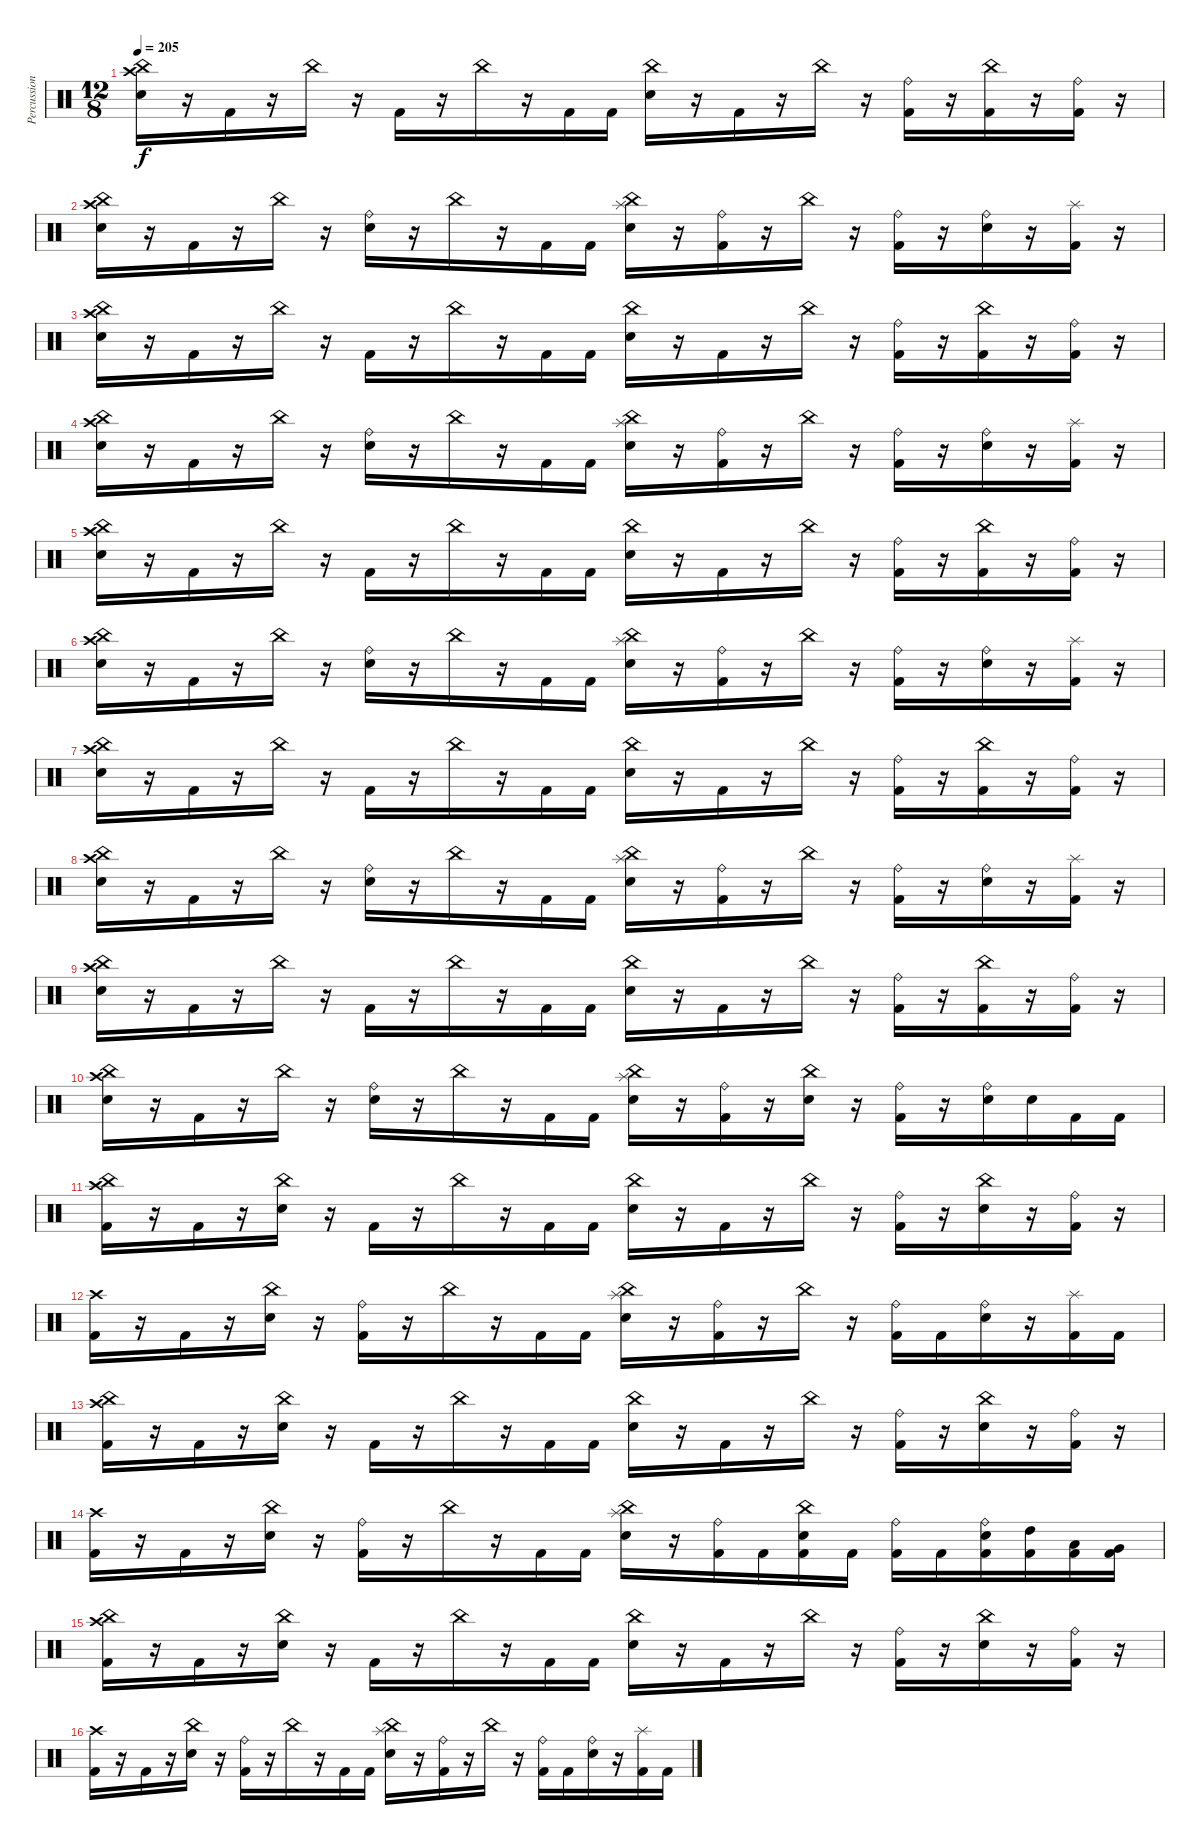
\track ("Percussion" "Percussion") {instrument percussion}
\staff {score}
\articulation defaults
\ts (12 8)
\tempo 205
\clef neutral
\ks c
("Crash high (hit)" "China (hit)" "Electric Snare (hit)").16{dy f} r.16 "Kick (hit) 2".16 r.16 "China (hit)".16 r.16 "Kick (hit) 2".16 r.16 "China (hit)".16 r.16 "Kick (hit) 2".16 "Kick (hit) 2".16 ("China (hit)" "Electric Snare (hit)").16 r.16 "Kick (hit) 2".16 r.16 "China (hit)".16 r.16 ("Ride (bell)" "Kick (hit) 2").16 r.16 ("China (hit)" "Kick (hit) 2").16 r.16 ("Ride (bell)" "Kick (hit) 2").16 r.16 |
("Crash high (hit)" "China (hit)" "Electric Snare (hit)").16 r.16 "Kick (hit) 2".16 r.16 "China (hit)".16 r.16 ("Ride (bell)" "Electric Snare (hit)").16 r.16 "China (hit)".16 r.16 "Kick (hit) 2".16 "Kick (hit) 2".16 ("China (hit)" "Splash (hit)" "Electric Snare (hit)").16 r.16 ("Ride (bell)" "Kick (hit) 2").16 r.16 "China (hit)".16 r.16 ("Ride (bell)" "Kick (hit) 2").16 r.16 ("Ride (bell)" "Electric Snare (hit)").16 r.16 ("Splash (hit)" "Kick (hit) 2").16 r.16 |
("Crash high (hit)" "China (hit)" "Electric Snare (hit)").16 r.16 "Kick (hit) 2".16 r.16 "China (hit)".16 r.16 "Kick (hit) 2".16 r.16 "China (hit)".16 r.16 "Kick (hit) 2".16 "Kick (hit) 2".16 ("China (hit)" "Electric Snare (hit)").16 r.16 "Kick (hit) 2".16 r.16 "China (hit)".16 r.16 ("Ride (bell)" "Kick (hit) 2").16 r.16 ("China (hit)" "Kick (hit) 2").16 r.16 ("Ride (bell)" "Kick (hit) 2").16 r.16 |
("Crash high (hit)" "China (hit)" "Electric Snare (hit)").16 r.16 "Kick (hit) 2".16 r.16 "China (hit)".16 r.16 ("Ride (bell)" "Electric Snare (hit)").16 r.16 "China (hit)".16 r.16 "Kick (hit) 2".16 "Kick (hit) 2".16 ("China (hit)" "Splash (hit)" "Electric Snare (hit)").16 r.16 ("Ride (bell)" "Kick (hit) 2").16 r.16 "China (hit)".16 r.16 ("Ride (bell)" "Kick (hit) 2").16 r.16 ("Ride (bell)" "Electric Snare (hit)").16 r.16 ("Splash (hit)" "Kick (hit) 2").16 r.16 |
("Crash high (hit)" "China (hit)" "Electric Snare (hit)").16 r.16 "Kick (hit) 2".16 r.16 "China (hit)".16 r.16 "Kick (hit) 2".16 r.16 "China (hit)".16 r.16 "Kick (hit) 2".16 "Kick (hit) 2".16 ("China (hit)" "Electric Snare (hit)").16 r.16 "Kick (hit) 2".16 r.16 "China (hit)".16 r.16 ("Ride (bell)" "Kick (hit) 2").16 r.16 ("China (hit)" "Kick (hit) 2").16 r.16 ("Ride (bell)" "Kick (hit) 2").16 r.16 |
("Crash high (hit)" "China (hit)" "Electric Snare (hit)").16 r.16 "Kick (hit) 2".16 r.16 "China (hit)".16 r.16 ("Ride (bell)" "Electric Snare (hit)").16 r.16 "China (hit)".16 r.16 "Kick (hit) 2".16 "Kick (hit) 2".16 ("China (hit)" "Splash (hit)" "Electric Snare (hit)").16 r.16 ("Ride (bell)" "Kick (hit) 2").16 r.16 "China (hit)".16 r.16 ("Ride (bell)" "Kick (hit) 2").16 r.16 ("Ride (bell)" "Electric Snare (hit)").16 r.16 ("Splash (hit)" "Kick (hit) 2").16 r.16 |
("Crash high (hit)" "China (hit)" "Electric Snare (hit)").16 r.16 "Kick (hit) 2".16 r.16 "China (hit)".16 r.16 "Kick (hit) 2".16 r.16 "China (hit)".16 r.16 "Kick (hit) 2".16 "Kick (hit) 2".16 ("China (hit)" "Electric Snare (hit)").16 r.16 "Kick (hit) 2".16 r.16 "China (hit)".16 r.16 ("Ride (bell)" "Kick (hit) 2").16 r.16 ("China (hit)" "Kick (hit) 2").16 r.16 ("Ride (bell)" "Kick (hit) 2").16 r.16 |
("Crash high (hit)" "China (hit)" "Electric Snare (hit)").16 r.16 "Kick (hit) 2".16 r.16 "China (hit)".16 r.16 ("Ride (bell)" "Electric Snare (hit)").16 r.16 "China (hit)".16 r.16 "Kick (hit) 2".16 "Kick (hit) 2".16 ("China (hit)" "Splash (hit)" "Electric Snare (hit)").16 r.16 ("Ride (bell)" "Kick (hit) 2").16 r.16 "China (hit)".16 r.16 ("Ride (bell)" "Kick (hit) 2").16 r.16 ("Ride (bell)" "Electric Snare (hit)").16 r.16 ("Splash (hit)" "Kick (hit) 2").16 r.16 |
("Crash high (hit)" "China (hit)" "Electric Snare (hit)").16 r.16 "Kick (hit) 2".16 r.16 "China (hit)".16 r.16 "Kick (hit) 2".16 r.16 "China (hit)".16 r.16 "Kick (hit) 2".16 "Kick (hit) 2".16 ("China (hit)" "Electric Snare (hit)").16 r.16 "Kick (hit) 2".16 r.16 "China (hit)".16 r.16 ("Ride (bell)" "Kick (hit) 2").16 r.16 ("China (hit)" "Kick (hit) 2").16 r.16 ("Ride (bell)" "Kick (hit) 2").16 r.16 |
("Crash high (hit)" "China (hit)" "Electric Snare (hit)").16 r.16 "Kick (hit) 2".16 r.16 "China (hit)".16 r.16 ("Ride (bell)" "Electric Snare (hit)").16 r.16 "China (hit)".16 r.16 "Kick (hit) 2".16 "Kick (hit) 2".16 ("China (hit)" "Splash (hit)" "Electric Snare (hit)").16 r.16 ("Ride (bell)" "Kick (hit) 2").16 r.16 ("China (hit)" "Electric Snare (hit)").16 r.16 ("Ride (bell)" "Kick (hit) 2").16 r.16 ("Ride (bell)" "Electric Snare (hit)").16 "Electric Snare (hit)".16 "Kick (hit) 2".16 "Kick (hit) 2".16 |
("Crash high (hit)" "China (hit)" "Kick (hit) 2").16 r.16 "Kick (hit) 2".16 r.16 ("China (hit)" "Electric Snare (hit)").16 r.16 "Kick (hit) 2".16 r.16 "China (hit)".16 r.16 "Kick (hit) 2".16 "Kick (hit) 2".16 ("China (hit)" "Electric Snare (hit)").16 r.16 "Kick (hit) 2".16 r.16 "China (hit)".16 r.16 ("Ride (bell)" "Kick (hit) 2").16 r.16 ("China (hit)" "Electric Snare (hit)").16 r.16 ("Ride (bell)" "Kick (hit) 2").16 r.16 |
("Crash high (hit)" "Kick (hit) 2").16 r.16 "Kick (hit) 2".16 r.16 ("China (hit)" "Electric Snare (hit)").16 r.16 ("Ride (bell)" "Kick (hit) 2").16 r.16 "China (hit)".16 r.16 "Kick (hit) 2".16 "Kick (hit) 2".16 ("China (hit)" "Splash (hit)" "Electric Snare (hit)").16 r.16 ("Ride (bell)" "Kick (hit) 2").16 r.16 "China (hit)".16 r.16 ("Ride (bell)" "Kick (hit) 2").16 "Kick (hit) 2".16 ("Ride (bell)" "Electric Snare (hit)").16 r.16 ("Splash (hit)" "Kick (hit) 2").16 "Kick (hit) 2".16 |
("Crash high (hit)" "China (hit)" "Kick (hit) 2").16 r.16 "Kick (hit) 2".16 r.16 ("China (hit)" "Electric Snare (hit)").16 r.16 "Kick (hit) 2".16 r.16 "China (hit)".16 r.16 "Kick (hit) 2".16 "Kick (hit) 2".16 ("China (hit)" "Electric Snare (hit)").16 r.16 "Kick (hit) 2".16 r.16 "China (hit)".16 r.16 ("Ride (bell)" "Kick (hit) 2").16 r.16 ("China (hit)" "Electric Snare (hit)").16 r.16 ("Ride (bell)" "Kick (hit) 2").16 r.16 |
("Crash high (hit)" "Kick (hit) 2").16 r.16 "Kick (hit) 2".16 r.16 ("China (hit)" "Electric Snare (hit)").16 r.16 ("Ride (bell)" "Kick (hit) 2").16 r.16 "China (hit)".16 r.16 "Kick (hit) 2".16 "Kick (hit) 2".16 ("China (hit)" "Splash (hit)" "Electric Snare (hit)").16 r.16 ("Ride (bell)" "Kick (hit) 2").16 "Kick (hit) 2".16 ("China (hit)" "Electric Snare (hit)" "Kick (hit) 2").16 "Kick (hit) 2".16 ("Ride (bell)" "Kick (hit) 2").16 "Kick (hit) 2".16 ("Ride (bell)" "Electric Snare (hit)" "Kick (hit) 2").16 ("High Tom (hit)" "Kick (hit) 2").16 ("Low Tom (hit)" "Kick (hit) 2").16 ("Very Low Tom (hit)" "Kick (hit) 2").16 |
("Crash high (hit)" "China (hit)" "Kick (hit) 2").16 r.16 "Kick (hit) 2".16 r.16 ("China (hit)" "Electric Snare (hit)").16 r.16 "Kick (hit) 2".16 r.16 "China (hit)".16 r.16 "Kick (hit) 2".16 "Kick (hit) 2".16 ("China (hit)" "Electric Snare (hit)").16 r.16 "Kick (hit) 2".16 r.16 "China (hit)".16 r.16 ("Ride (bell)" "Kick (hit) 2").16 r.16 ("China (hit)" "Electric Snare (hit)").16 r.16 ("Ride (bell)" "Kick (hit) 2").16 r.16 |
("Crash high (hit)" "Kick (hit) 2").16 r.16 "Kick (hit) 2".16 r.16 ("China (hit)" "Electric Snare (hit)").16 r.16 ("Ride (bell)" "Kick (hit) 2").16 r.16 "China (hit)".16 r.16 "Kick (hit) 2".16 "Kick (hit) 2".16 ("China (hit)" "Splash (hit)" "Electric Snare (hit)").16 r.16 ("Ride (bell)" "Kick (hit) 2").16 r.16 "China (hit)".16 r.16 ("Ride (bell)" "Kick (hit) 2").16 "Kick (hit) 2".16 ("Ride (bell)" "Electric Snare (hit)").16 r.16 ("Splash (hit)" "Kick (hit) 2").16 "Kick (hit) 2".16
